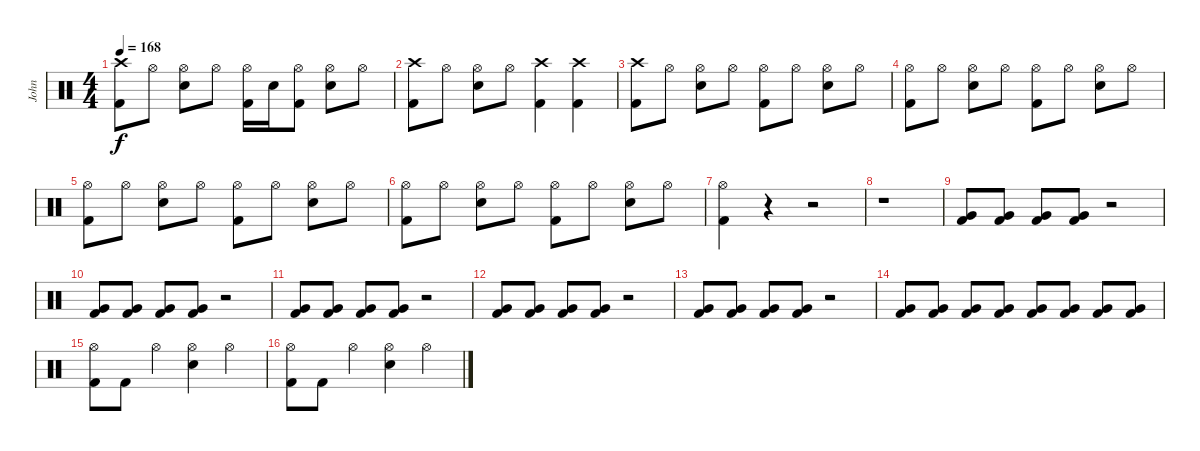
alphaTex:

\track ("John" "John") {instrument percussion}
\staff {score}
\articulation defaults
\ts (4 4)
\tempo 168
\clef neutral
\ks c
("Crash high (hit)" "Kick (hit) 2").8{dy f} "Hi-Hat (open)".8 ("Hi-Hat (open)" "Electric Snare (hit)").8 "Hi-Hat (open)".8 ("Hi-Hat (open)" "Kick (hit) 2").16 "Electric Snare (hit)".16 ("Hi-Hat (open)" "Kick (hit) 2").8 ("Hi-Hat (open)" "Electric Snare (hit)").8 "Hi-Hat (open)".8 |
("Crash high (hit)" "Kick (hit) 2").8 "Hi-Hat (open)".8 ("Hi-Hat (open)" "Electric Snare (hit)").8 "Hi-Hat (open)".8 ("Crash high (hit)" "Kick (hit) 2").4 ("Crash high (hit)" "Kick (hit) 2").4 |
("Crash high (hit)" "Kick (hit) 2").8 "Hi-Hat (open)".8 ("Hi-Hat (open)" "Electric Snare (hit)").8 "Hi-Hat (open)".8 ("Hi-Hat (open)" "Kick (hit) 2").8 "Hi-Hat (open)".8 ("Hi-Hat (open)" "Electric Snare (hit)").8 "Hi-Hat (open)".8 |
("Hi-Hat (open)" "Kick (hit) 2").8 "Hi-Hat (open)".8 ("Hi-Hat (open)" "Electric Snare (hit)").8 "Hi-Hat (open)".8 ("Hi-Hat (open)" "Kick (hit) 2").8 "Hi-Hat (open)".8 ("Hi-Hat (open)" "Electric Snare (hit)").8 "Hi-Hat (open)".8 |
("Hi-Hat (open)" "Kick (hit) 2").8 "Hi-Hat (open)".8 ("Hi-Hat (open)" "Electric Snare (hit)").8 "Hi-Hat (open)".8 ("Hi-Hat (open)" "Kick (hit) 2").8 "Hi-Hat (open)".8 ("Hi-Hat (open)" "Electric Snare (hit)").8 "Hi-Hat (open)".8 |
("Hi-Hat (open)" "Kick (hit) 2").8 "Hi-Hat (open)".8 ("Hi-Hat (open)" "Electric Snare (hit)").8 "Hi-Hat (open)".8 ("Hi-Hat (open)" "Kick (hit) 2").8 "Hi-Hat (open)".8 ("Hi-Hat (open)" "Electric Snare (hit)").8 "Hi-Hat (open)".8 |
("Hi-Hat (open)" "Kick (hit) 2").4 r.4 r.2 |
r.1 |
("Very Low Tom (hit)" "Kick (hit) 2").8 ("Very Low Tom (hit)" "Kick (hit) 2").8 ("Very Low Tom (hit)" "Kick (hit) 2").8 ("Very Low Tom (hit)" "Kick (hit) 2").8 r.2 |
("Very Low Tom (hit)" "Kick (hit) 2").8 ("Very Low Tom (hit)" "Kick (hit) 2").8 ("Very Low Tom (hit)" "Kick (hit) 2").8 ("Very Low Tom (hit)" "Kick (hit) 2").8 r.2 |
("Very Low Tom (hit)" "Kick (hit) 2").8 ("Very Low Tom (hit)" "Kick (hit) 2").8 ("Very Low Tom (hit)" "Kick (hit) 2").8 ("Very Low Tom (hit)" "Kick (hit) 2").8 r.2 |
("Very Low Tom (hit)" "Kick (hit) 2").8 ("Very Low Tom (hit)" "Kick (hit) 2").8 ("Very Low Tom (hit)" "Kick (hit) 2").8 ("Very Low Tom (hit)" "Kick (hit) 2").8 r.2 |
("Very Low Tom (hit)" "Kick (hit) 2").8 ("Very Low Tom (hit)" "Kick (hit) 2").8 ("Very Low Tom (hit)" "Kick (hit) 2").8 ("Very Low Tom (hit)" "Kick (hit) 2").8 r.2 |
("Very Low Tom (hit)" "Kick (hit) 2").8 ("Very Low Tom (hit)" "Kick (hit) 2").8 ("Very Low Tom (hit)" "Kick (hit) 2").8 ("Very Low Tom (hit)" "Kick (hit) 2").8 ("Very Low Tom (hit)" "Kick (hit) 2").8 ("Very Low Tom (hit)" "Kick (hit) 2").8 ("Very Low Tom (hit)" "Kick (hit) 2").8 ("Very Low Tom (hit)" "Kick (hit) 2").8 |
("Hi-Hat (open)" "Kick (hit) 2").8 "Kick (hit) 2".8 "Hi-Hat (open)".4 ("Hi-Hat (open)" "Electric Snare (hit)").4 "Hi-Hat (open)".4 |
("Hi-Hat (open)" "Kick (hit) 2").8 "Kick (hit) 2".8 "Hi-Hat (open)".4 ("Hi-Hat (open)" "Electric Snare (hit)").4 "Hi-Hat (open)".4
